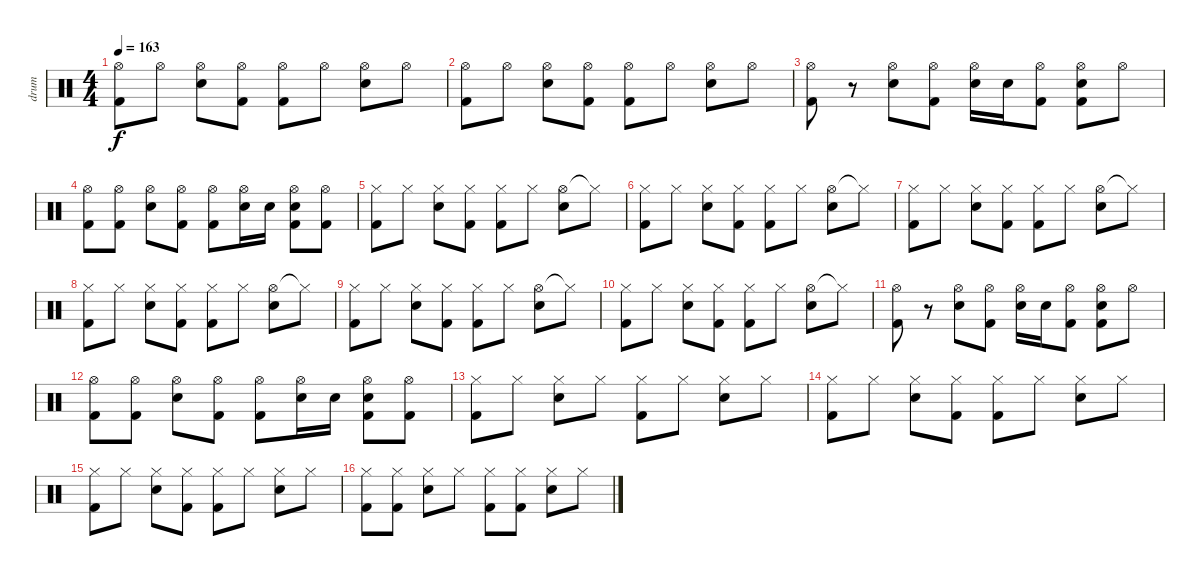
\track ("drum" "drum") {instrument percussion}
\staff {score}
\articulation defaults
\ts (4 4)
\tempo 163
\clef neutral
\ks c
("Hi-Hat (open)" "Kick (hit) 2").8{dy f} "Hi-Hat (open)".8 ("Hi-Hat (open)" "Electric Snare (hit)").8 ("Hi-Hat (open)" "Kick (hit) 2").8 ("Hi-Hat (open)" "Kick (hit) 2").8 "Hi-Hat (open)".8 ("Hi-Hat (open)" "Electric Snare (hit)").8 "Hi-Hat (open)".8 |
("Hi-Hat (open)" "Kick (hit) 2").8 "Hi-Hat (open)".8 ("Hi-Hat (open)" "Electric Snare (hit)").8 ("Hi-Hat (open)" "Kick (hit) 2").8 ("Hi-Hat (open)" "Kick (hit) 2").8 "Hi-Hat (open)".8 ("Hi-Hat (open)" "Electric Snare (hit)").8 "Hi-Hat (open)".8 |
("Hi-Hat (open)" "Kick (hit) 2").8 r.8 ("Hi-Hat (open)" "Electric Snare (hit)").8 ("Hi-Hat (open)" "Kick (hit) 2").8 ("Hi-Hat (open)" "Electric Snare (hit)").16 "Electric Snare (hit)".16 ("Hi-Hat (open)" "Kick (hit) 2").8 ("Hi-Hat (open)" "Electric Snare (hit)" "Kick (hit) 2").8 "Hi-Hat (open)".8 |
("Hi-Hat (open)" "Kick (hit) 2").8 ("Hi-Hat (open)" "Kick (hit) 2").8 ("Hi-Hat (open)" "Electric Snare (hit)").8 ("Hi-Hat (open)" "Kick (hit) 2").8 ("Hi-Hat (open)" "Kick (hit) 2").8 ("Hi-Hat (open)" "Electric Snare (hit)").16 "Electric Snare (hit)".16 ("Hi-Hat (open)" "Electric Snare (hit)" "Kick (hit) 2").8 ("Hi-Hat (open)" "Kick (hit) 2").8 |
("Hi-Hat (closed)" "Kick (hit) 2").8 "Hi-Hat (closed)".8 ("Hi-Hat (closed)" "Electric Snare (hit)").8 ("Hi-Hat (closed)" "Kick (hit) 2").8 ("Hi-Hat (closed)" "Kick (hit) 2").8 "Hi-Hat (closed)".8 ("Hi-Hat (open)" "Electric Snare (hit)").8 "Hi-Hat (closed)"{t}.8 |
("Hi-Hat (closed)" "Kick (hit) 2").8 "Hi-Hat (closed)".8 ("Hi-Hat (closed)" "Electric Snare (hit)").8 ("Hi-Hat (closed)" "Kick (hit) 2").8 ("Hi-Hat (closed)" "Kick (hit) 2").8 "Hi-Hat (closed)".8 ("Hi-Hat (open)" "Electric Snare (hit)").8 "Hi-Hat (closed)"{t}.8 |
("Hi-Hat (closed)" "Kick (hit) 2").8 "Hi-Hat (closed)".8 ("Hi-Hat (closed)" "Electric Snare (hit)").8 ("Hi-Hat (closed)" "Kick (hit) 2").8 ("Hi-Hat (closed)" "Kick (hit) 2").8 "Hi-Hat (closed)".8 ("Hi-Hat (open)" "Electric Snare (hit)").8 "Hi-Hat (closed)"{t}.8 |
("Hi-Hat (closed)" "Kick (hit) 2").8 "Hi-Hat (closed)".8 ("Hi-Hat (closed)" "Electric Snare (hit)").8 ("Hi-Hat (closed)" "Kick (hit) 2").8 ("Hi-Hat (closed)" "Kick (hit) 2").8 "Hi-Hat (closed)".8 ("Hi-Hat (open)" "Electric Snare (hit)").8 "Hi-Hat (closed)"{t}.8 |
("Hi-Hat (closed)" "Kick (hit) 2").8 "Hi-Hat (closed)".8 ("Hi-Hat (closed)" "Electric Snare (hit)").8 ("Hi-Hat (closed)" "Kick (hit) 2").8 ("Hi-Hat (closed)" "Kick (hit) 2").8 "Hi-Hat (closed)".8 ("Hi-Hat (open)" "Electric Snare (hit)").8 "Hi-Hat (closed)"{t}.8 |
("Hi-Hat (closed)" "Kick (hit) 2").8 "Hi-Hat (closed)".8 ("Hi-Hat (closed)" "Electric Snare (hit)").8 ("Hi-Hat (closed)" "Kick (hit) 2").8 ("Hi-Hat (closed)" "Kick (hit) 2").8 "Hi-Hat (closed)".8 ("Hi-Hat (open)" "Electric Snare (hit)").8 "Hi-Hat (closed)"{t}.8 |
("Hi-Hat (open)" "Kick (hit) 2").8 r.8 ("Hi-Hat (open)" "Electric Snare (hit)").8 ("Hi-Hat (open)" "Kick (hit) 2").8 ("Hi-Hat (open)" "Electric Snare (hit)").16 "Electric Snare (hit)".16 ("Hi-Hat (open)" "Kick (hit) 2").8 ("Hi-Hat (open)" "Electric Snare (hit)" "Kick (hit) 2").8 "Hi-Hat (open)".8 |
("Hi-Hat (open)" "Kick (hit) 2").8 ("Hi-Hat (open)" "Kick (hit) 2").8 ("Hi-Hat (open)" "Electric Snare (hit)").8 ("Hi-Hat (open)" "Kick (hit) 2").8 ("Hi-Hat (open)" "Kick (hit) 2").8 ("Hi-Hat (open)" "Electric Snare (hit)").16 "Electric Snare (hit)".16 ("Hi-Hat (open)" "Electric Snare (hit)" "Kick (hit) 2").8 ("Hi-Hat (open)" "Kick (hit) 2").8 |
("Hi-Hat (closed)" "Kick (hit) 2").8 "Hi-Hat (closed)".8 ("Hi-Hat (closed)" "Electric Snare (hit)").8 "Hi-Hat (closed)".8 ("Hi-Hat (closed)" "Kick (hit) 2").8 "Hi-Hat (closed)".8 ("Hi-Hat (closed)" "Electric Snare (hit)").8 "Hi-Hat (closed)".8 |
("Hi-Hat (closed)" "Kick (hit) 2").8 "Hi-Hat (closed)".8 ("Hi-Hat (closed)" "Electric Snare (hit)").8 ("Hi-Hat (closed)" "Kick (hit) 2").8 ("Hi-Hat (closed)" "Kick (hit) 2").8 "Hi-Hat (closed)".8 ("Hi-Hat (closed)" "Electric Snare (hit)").8 "Hi-Hat (closed)".8 |
("Hi-Hat (closed)" "Kick (hit) 2").8 "Hi-Hat (closed)".8 ("Hi-Hat (closed)" "Electric Snare (hit)").8 ("Hi-Hat (closed)" "Kick (hit) 2").8 ("Hi-Hat (closed)" "Kick (hit) 2").8 "Hi-Hat (closed)".8 ("Hi-Hat (closed)" "Electric Snare (hit)").8 "Hi-Hat (closed)".8 |
("Hi-Hat (closed)" "Kick (hit) 2").8 ("Hi-Hat (closed)" "Kick (hit) 2").8 ("Hi-Hat (closed)" "Electric Snare (hit)").8 "Hi-Hat (closed)".8 ("Hi-Hat (closed)" "Kick (hit) 2").8 ("Hi-Hat (closed)" "Kick (hit) 2").8 ("Hi-Hat (closed)" "Electric Snare (hit)").8 "Hi-Hat (closed)".8
